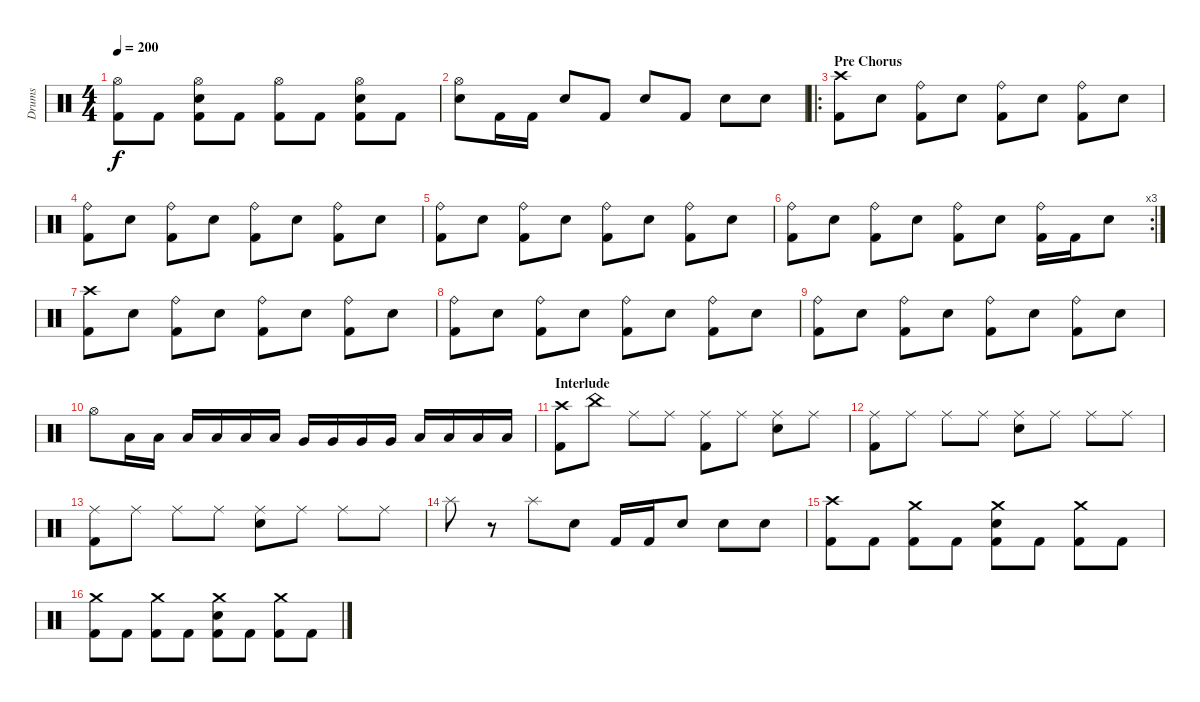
\track ("Drums" "Drums") {instrument percussion}
\staff {score}
\articulation defaults
\ts (4 4)
\tempo 200
\clef neutral
\ks c
("Hi-Hat (open)" "Kick (hit) 2").8{dy f} "Kick (hit) 2".8 ("Hi-Hat (open)" "Electric Snare (hit)" "Kick (hit) 2").8 "Kick (hit) 2".8 ("Hi-Hat (open)" "Kick (hit) 2").8 "Kick (hit) 2".8 ("Hi-Hat (open)" "Electric Snare (hit)" "Kick (hit) 2").8 "Kick (hit) 2".8 |
("Hi-Hat (open)" "Electric Snare (hit)").8 "Kick (hit) 2".16 "Kick (hit) 2".16 "Electric Snare (hit)".8 "Kick (hit) 2".8 "Electric Snare (hit)".8 "Kick (hit) 2".8 "Electric Snare (hit)".8 "Electric Snare (hit)".8 |
\ro
\section ("" "Pre Chorus")
("Crash high (hit)" "Kick (hit) 2").8 "Electric Snare (hit)".8 ("Ride (bell)" "Kick (hit) 2").8 "Electric Snare (hit)".8 ("Ride (bell)" "Kick (hit) 2").8 "Electric Snare (hit)".8 ("Ride (bell)" "Kick (hit) 2").8 "Electric Snare (hit)".8 |
("Ride (bell)" "Kick (hit) 2").8 "Electric Snare (hit)".8 ("Ride (bell)" "Kick (hit) 2").8 "Electric Snare (hit)".8 ("Ride (bell)" "Kick (hit) 2").8 "Electric Snare (hit)".8 ("Ride (bell)" "Kick (hit) 2").8 "Electric Snare (hit)".8 |
("Ride (bell)" "Kick (hit) 2").8 "Electric Snare (hit)".8 ("Ride (bell)" "Kick (hit) 2").8 "Electric Snare (hit)".8 ("Ride (bell)" "Kick (hit) 2").8 "Electric Snare (hit)".8 ("Ride (bell)" "Kick (hit) 2").8 "Electric Snare (hit)".8 |
\rc 3
("Ride (bell)" "Kick (hit) 2").8 "Electric Snare (hit)".8 ("Ride (bell)" "Kick (hit) 2").8 "Electric Snare (hit)".8 ("Ride (bell)" "Kick (hit) 2").8 "Electric Snare (hit)".8 ("Ride (bell)" "Kick (hit) 2").16 "Kick (hit) 2".16 "Electric Snare (hit)".8 |
("Crash high (hit)" "Kick (hit) 2").8 "Electric Snare (hit)".8 ("Ride (bell)" "Kick (hit) 2").8 "Electric Snare (hit)".8 ("Ride (bell)" "Kick (hit) 2").8 "Electric Snare (hit)".8 ("Ride (bell)" "Kick (hit) 2").8 "Electric Snare (hit)".8 |
("Ride (bell)" "Kick (hit) 2").8 "Electric Snare (hit)".8 ("Ride (bell)" "Kick (hit) 2").8 "Electric Snare (hit)".8 ("Ride (bell)" "Kick (hit) 2").8 "Electric Snare (hit)".8 ("Ride (bell)" "Kick (hit) 2").8 "Electric Snare (hit)".8 |
("Ride (bell)" "Kick (hit) 2").8 "Electric Snare (hit)".8 ("Ride (bell)" "Kick (hit) 2").8 "Electric Snare (hit)".8 ("Ride (bell)" "Kick (hit) 2").8 "Electric Snare (hit)".8 ("Ride (bell)" "Kick (hit) 2").8 "Electric Snare (hit)".8 |
"Hi-Hat (open)".8 "Low Tom (hit)".16 "Low Tom (hit)".16 "Low Tom (hit)".16 "Low Tom (hit)".16 "Low Tom (hit)".16 "Low Tom (hit)".16 "Very Low Tom (hit)".16 "Very Low Tom (hit)".16 "Very Low Tom (hit)".16 "Very Low Tom (hit)".16 "Low Floor Tom (hit)".16 "Low Floor Tom (hit)".16 "Low Floor Tom (hit)".16 "Low Floor Tom (hit)".16 |
\section ("" "Interlude")
("Crash high (hit)" "Kick (hit) 2").8 "China (hit)".8 "Ride (middle)".8 "Ride (middle)".8 ("Ride (middle)" "Kick (hit) 2").8 "Ride (middle)".8 ("Ride (middle)" "Electric Snare (hit)").8 "Ride (middle)".8 |
("Ride (middle)" "Kick (hit) 2").8 "Ride (middle)".8 "Ride (middle)".8 "Ride (middle)".8 ("Ride (middle)" "Electric Snare (hit)").8 "Ride (middle)".8 "Ride (middle)".8 "Ride (middle)".8 |
("Ride (middle)" "Kick (hit) 2").8 "Ride (middle)".8 "Ride (middle)".8 "Ride (middle)".8 ("Ride (middle)" "Electric Snare (hit)").8 "Ride (middle)".8 "Ride (middle)".8 "Ride (middle)".8 |
"Splash (hit)".8 r.8 "Splash (hit)".8 "Electric Snare (hit)".8 "Kick (hit) 2".16 "Kick (hit) 2".16 "Electric Snare (hit)".8 "Electric Snare (hit)".8 "Electric Snare (hit)".8 |
("Crash high (hit)" "Kick (hit) 2").8 "Kick (hit) 2".8 ("Crash medium (hit)" "Kick (hit) 2").8 "Kick (hit) 2".8 ("Crash medium (hit)" "Electric Snare (hit)" "Kick (hit) 2").8 "Kick (hit) 2".8 ("Crash medium (hit)" "Kick (hit) 2").8 "Kick (hit) 2".8 |
("Crash medium (hit)" "Kick (hit) 2").8 "Kick (hit) 2".8 ("Crash medium (hit)" "Kick (hit) 2").8 "Kick (hit) 2".8 ("Crash medium (hit)" "Electric Snare (hit)" "Kick (hit) 2").8 "Kick (hit) 2".8 ("Crash medium (hit)" "Kick (hit) 2").8 "Kick (hit) 2".8
